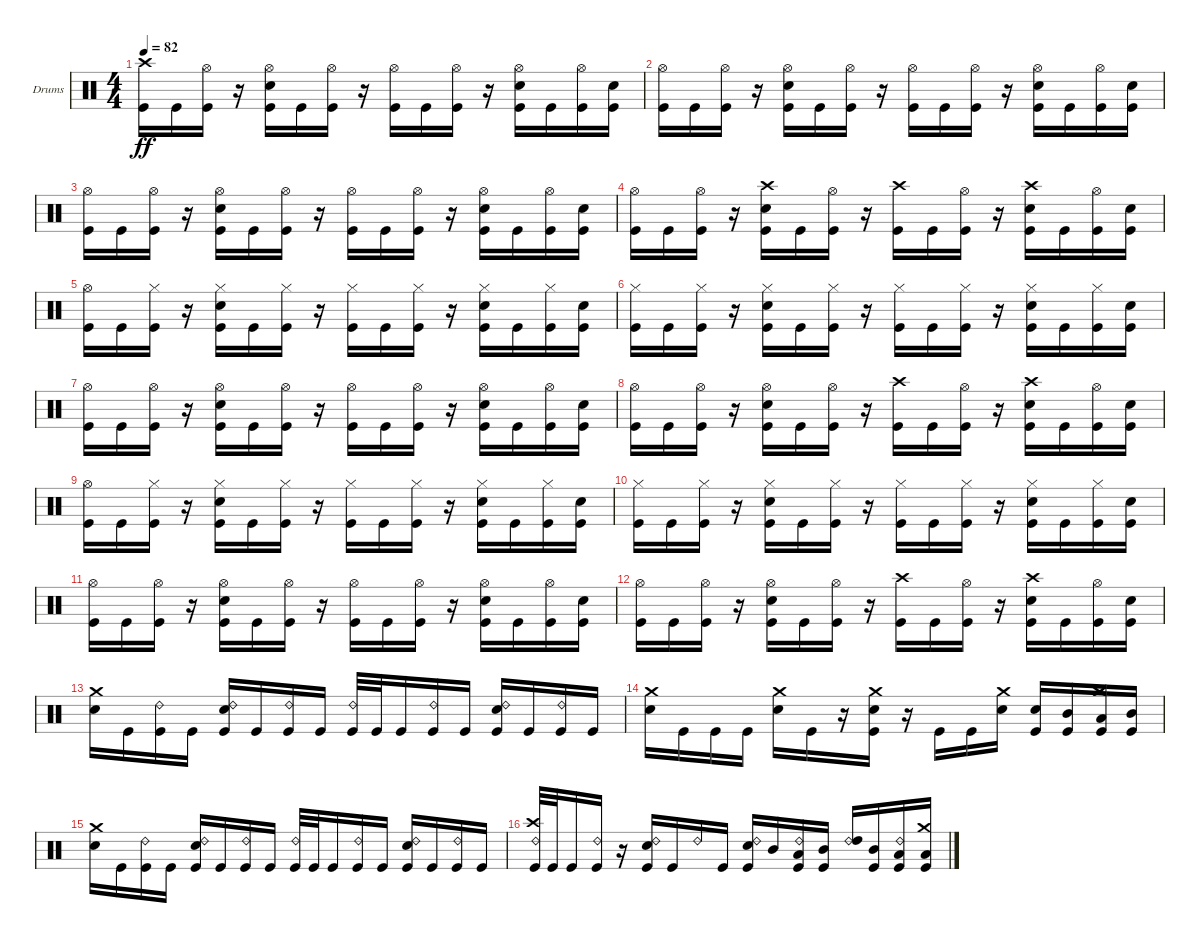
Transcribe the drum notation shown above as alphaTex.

\bracketExtendMode groupsimilarinstruments
\firstSystemTrackNameOrientation horizontal
\otherSystemsTrackNameOrientation horizontal
\track ("Drumkit" "Drums") {instrument percussion}
\staff {score}
\articulation defaults
\ts (4 4)
\tempo 82
\clef neutral
\ks c
("Kick (hit)" "Crash high (hit)").16{dy ff} "Kick (hit)".16 ("Kick (hit)" "Hi-Hat (open)").16 r.16 ("Kick (hit)" "Snare (hit) 2" "Hi-Hat (open)").16 "Kick (hit)".16 ("Kick (hit)" "Hi-Hat (open)").16 r.16 ("Kick (hit)" "Hi-Hat (open)").16 "Kick (hit)".16 ("Kick (hit)" "Hi-Hat (open)").16 r.16 ("Kick (hit)" "Snare (hit) 2" "Hi-Hat (open)").16 "Kick (hit)".16 ("Kick (hit)" "Hi-Hat (open)").16 ("Kick (hit)" "Snare (hit) 2").16 |
("Kick (hit)" "Hi-Hat (open)").16 "Kick (hit)".16 ("Kick (hit)" "Hi-Hat (open)").16 r.16 ("Kick (hit)" "Snare (hit) 2" "Hi-Hat (open)").16 "Kick (hit)".16 ("Kick (hit)" "Hi-Hat (open)").16 r.16 ("Kick (hit)" "Hi-Hat (open)").16 "Kick (hit)".16 ("Kick (hit)" "Hi-Hat (open)").16 r.16 ("Kick (hit)" "Snare (hit) 2" "Hi-Hat (open)").16 "Kick (hit)".16 ("Kick (hit)" "Hi-Hat (open)").16 ("Kick (hit)" "Snare (hit) 2").16 |
("Kick (hit)" "Hi-Hat (open)").16 "Kick (hit)".16 ("Kick (hit)" "Hi-Hat (open)").16 r.16 ("Kick (hit)" "Snare (hit) 2" "Hi-Hat (open)").16 "Kick (hit)".16 ("Kick (hit)" "Hi-Hat (open)").16 r.16 ("Kick (hit)" "Hi-Hat (open)").16 "Kick (hit)".16 ("Kick (hit)" "Hi-Hat (open)").16 r.16 ("Kick (hit)" "Snare (hit) 2" "Hi-Hat (open)").16 "Kick (hit)".16 ("Kick (hit)" "Hi-Hat (open)").16 ("Kick (hit)" "Snare (hit) 2").16 |
("Kick (hit)" "Hi-Hat (open)").16 "Kick (hit)".16 ("Kick (hit)" "Hi-Hat (open)").16 r.16 ("Kick (hit)" "Snare (hit) 2" "Crash high (hit)").16 "Kick (hit)".16 ("Kick (hit)" "Hi-Hat (open)").16 r.16 ("Kick (hit)" "Crash high (hit)").16 "Kick (hit)".16 ("Kick (hit)" "Hi-Hat (open)").16 r.16 ("Kick (hit)" "Snare (hit) 2" "Crash high (hit)").16 "Kick (hit)".16 ("Kick (hit)" "Hi-Hat (open)").16 ("Kick (hit)" "Snare (hit) 2").16 |
("Kick (hit)" "Hi-Hat (open)").16 "Kick (hit)".16 ("Kick (hit)" "Hi-Hat (closed)").16 r.16 ("Kick (hit)" "Snare (hit) 2" "Hi-Hat (closed)").16 "Kick (hit)".16 ("Kick (hit)" "Hi-Hat (closed)").16 r.16 ("Kick (hit)" "Hi-Hat (closed)").16 "Kick (hit)".16 ("Kick (hit)" "Hi-Hat (closed)").16 r.16 ("Kick (hit)" "Snare (hit) 2" "Hi-Hat (closed)").16 "Kick (hit)".16 ("Kick (hit)" "Hi-Hat (closed)").16 ("Kick (hit)" "Snare (hit) 2").16 |
("Kick (hit)" "Hi-Hat (closed)").16 "Kick (hit)".16 ("Kick (hit)" "Hi-Hat (closed)").16 r.16 ("Kick (hit)" "Snare (hit) 2" "Hi-Hat (closed)").16 "Kick (hit)".16 ("Kick (hit)" "Hi-Hat (closed)").16 r.16 ("Kick (hit)" "Hi-Hat (closed)").16 "Kick (hit)".16 ("Kick (hit)" "Hi-Hat (closed)").16 r.16 ("Kick (hit)" "Snare (hit) 2" "Hi-Hat (closed)").16 "Kick (hit)".16 ("Kick (hit)" "Hi-Hat (closed)").16 ("Kick (hit)" "Snare (hit) 2").16 |
("Kick (hit)" "Hi-Hat (open)").16 "Kick (hit)".16 ("Kick (hit)" "Hi-Hat (open)").16 r.16 ("Kick (hit)" "Snare (hit) 2" "Hi-Hat (open)").16 "Kick (hit)".16 ("Kick (hit)" "Hi-Hat (open)").16 r.16 ("Kick (hit)" "Hi-Hat (open)").16 "Kick (hit)".16 ("Kick (hit)" "Hi-Hat (open)").16 r.16 ("Kick (hit)" "Snare (hit) 2" "Hi-Hat (open)").16 "Kick (hit)".16 ("Kick (hit)" "Hi-Hat (open)").16 ("Kick (hit)" "Snare (hit) 2").16 |
("Kick (hit)" "Hi-Hat (open)").16 "Kick (hit)".16 ("Kick (hit)" "Hi-Hat (open)").16 r.16 ("Kick (hit)" "Snare (hit) 2" "Hi-Hat (open)").16 "Kick (hit)".16 ("Kick (hit)" "Hi-Hat (open)").16 r.16 ("Kick (hit)" "Crash high (hit)").16 "Kick (hit)".16 ("Kick (hit)" "Hi-Hat (open)").16 r.16 ("Kick (hit)" "Snare (hit) 2" "Crash high (hit)").16 "Kick (hit)".16 ("Kick (hit)" "Hi-Hat (open)").16 ("Kick (hit)" "Snare (hit) 2").16 |
("Kick (hit)" "Hi-Hat (open)").16 "Kick (hit)".16 ("Kick (hit)" "Hi-Hat (closed)").16 r.16 ("Kick (hit)" "Snare (hit) 2" "Hi-Hat (closed)").16 "Kick (hit)".16 ("Kick (hit)" "Hi-Hat (closed)").16 r.16 ("Kick (hit)" "Hi-Hat (closed)").16 "Kick (hit)".16 ("Kick (hit)" "Hi-Hat (closed)").16 r.16 ("Kick (hit)" "Snare (hit) 2" "Hi-Hat (closed)").16 "Kick (hit)".16 ("Kick (hit)" "Hi-Hat (closed)").16 ("Kick (hit)" "Snare (hit) 2").16 |
("Kick (hit)" "Hi-Hat (closed)").16 "Kick (hit)".16 ("Kick (hit)" "Hi-Hat (closed)").16 r.16 ("Kick (hit)" "Snare (hit) 2" "Hi-Hat (closed)").16 "Kick (hit)".16 ("Kick (hit)" "Hi-Hat (closed)").16 r.16 ("Kick (hit)" "Hi-Hat (closed)").16 "Kick (hit)".16 ("Kick (hit)" "Hi-Hat (closed)").16 r.16 ("Kick (hit)" "Snare (hit) 2" "Hi-Hat (closed)").16 "Kick (hit)".16 ("Kick (hit)" "Hi-Hat (closed)").16 ("Kick (hit)" "Snare (hit) 2").16 |
("Kick (hit)" "Hi-Hat (open)").16 "Kick (hit)".16 ("Kick (hit)" "Hi-Hat (open)").16 r.16 ("Kick (hit)" "Snare (hit) 2" "Hi-Hat (open)").16 "Kick (hit)".16 ("Kick (hit)" "Hi-Hat (open)").16 r.16 ("Kick (hit)" "Hi-Hat (open)").16 "Kick (hit)".16 ("Kick (hit)" "Hi-Hat (open)").16 r.16 ("Kick (hit)" "Snare (hit) 2" "Hi-Hat (open)").16 "Kick (hit)".16 ("Kick (hit)" "Hi-Hat (open)").16 ("Kick (hit)" "Snare (hit) 2").16 |
("Kick (hit)" "Hi-Hat (open)").16 "Kick (hit)".16 ("Kick (hit)" "Hi-Hat (open)").16 r.16 ("Kick (hit)" "Snare (hit) 2" "Hi-Hat (open)").16 "Kick (hit)".16 ("Kick (hit)" "Hi-Hat (open)").16 r.16 ("Kick (hit)" "Crash high (hit)").16 "Kick (hit)".16 ("Kick (hit)" "Hi-Hat (open)").16 r.16 ("Kick (hit)" "Snare (hit) 2" "Crash high (hit)").16 "Kick (hit)".16 ("Kick (hit)" "Hi-Hat (open)").16 ("Kick (hit)" "Snare (hit) 2").16 |
("Snare (hit) 2" "Crash medium (hit)").16 "Kick (hit)".16 ("Kick (hit)" "Ride (bell) 2").16 "Kick (hit)".16 ("Kick (hit)" "Snare (hit) 2" "Ride (bell) 2").16 "Kick (hit)".16 ("Kick (hit)" "Ride (bell) 2").16 "Kick (hit)".16 ("Kick (hit)" "Ride (bell) 2").32 "Kick (hit)".32 "Kick (hit)".16 ("Kick (hit)" "Ride (bell) 2").16 "Kick (hit)".16 ("Kick (hit)" "Snare (hit) 2" "Ride (bell) 2").16 "Kick (hit)".16 ("Kick (hit)" "Ride (bell) 2").16 "Kick (hit)".16 |
("Snare (hit) 2" "Crash medium (hit)").16 "Kick (hit)".16 "Kick (hit)".16 "Kick (hit)".16 ("Crash medium (hit)" "Snare (hit) 2").16 "Kick (hit)".16 r.16 ("Kick (hit)" "Snare (hit) 2" "Crash medium (hit)").16 r.16 "Kick (hit)".16 "Kick (hit)".16 ("Snare (hit) 2" "Crash medium (hit)").16 ("Kick (hit)" "Snare (hit) 2").16 ("Kick (hit)" "Mid Tom (hit)").16 ("Crash medium (hit)" "Kick (hit)" "Low Tom (hit)").16 ("Kick (hit)" "Mid Tom (hit)").16 |
("Snare (hit) 2" "Crash medium (hit)").16 "Kick (hit)".16 ("Kick (hit)" "Ride (bell) 2").16 "Kick (hit)".16 ("Kick (hit)" "Snare (hit) 2" "Ride (bell) 2").16 "Kick (hit)".16 ("Kick (hit)" "Ride (bell) 2").16 "Kick (hit)".16 ("Kick (hit)" "Ride (bell) 2").32 "Kick (hit)".32 "Kick (hit)".16 ("Kick (hit)" "Ride (bell) 2").16 "Kick (hit)".16 ("Kick (hit)" "Snare (hit) 2" "Ride (bell) 2").16 "Kick (hit)".16 ("Kick (hit)" "Ride (bell) 2").16 "Kick (hit)".16 |
("Kick (hit)" "Ride (bell) 2" "Crash high (hit)").32 "Kick (hit)".32 "Kick (hit)".16 ("Kick (hit)" "Ride (bell) 2").16 r.16 ("Kick (hit)" "Ride (bell) 2" "Snare (hit) 2").16 "Kick (hit)".16 "Ride (bell) 2".16 "Kick (hit)".16 ("Kick (hit)" "Ride (bell) 2" "Snare (hit) 2").16 "Mid Tom (hit)".16 ("Kick (hit)" "Ride (bell) 2" "Low Tom (hit)").16 ("Kick (hit)" "Mid Tom (hit)").16 ("Ride (bell) 2" "High Tom (hit)").16 ("Kick (hit)" "Mid Tom (hit)").16 ("Kick (hit)" "Ride (bell) 2" "Low Tom (hit)").16 ("Kick (hit)" "Low Tom (hit)" "Crash medium (hit)").16
